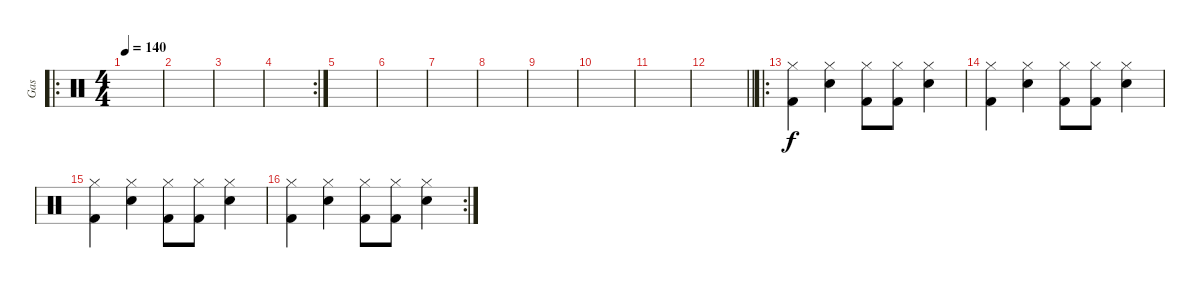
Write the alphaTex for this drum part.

\track ("Gas" "Gas") {instrument percussion}
\staff {score}
\articulation defaults
\ro
\ts (4 4)
\tempo 140
\clef neutral
\ks c
|
|
|
\rc 2
|
|
|
|
|
|
|
|
\barLineRight lightlight
|
\ro
("Hi-Hat (closed)" "Kick (hit) 2").4 ("Hi-Hat (closed)" "Electric Snare (hit)").4 ("Hi-Hat (closed)" "Kick (hit) 2").8 ("Hi-Hat (closed)" "Kick (hit) 2").8 ("Hi-Hat (closed)" "Electric Snare (hit)").4 |
("Hi-Hat (closed)" "Kick (hit) 2").4 ("Hi-Hat (closed)" "Electric Snare (hit)").4 ("Hi-Hat (closed)" "Kick (hit) 2").8 ("Hi-Hat (closed)" "Kick (hit) 2").8 ("Hi-Hat (closed)" "Electric Snare (hit)").4 |
("Hi-Hat (closed)" "Kick (hit) 2").4 ("Hi-Hat (closed)" "Electric Snare (hit)").4 ("Hi-Hat (closed)" "Kick (hit) 2").8 ("Hi-Hat (closed)" "Kick (hit) 2").8 ("Hi-Hat (closed)" "Electric Snare (hit)").4 |
\rc 2
("Hi-Hat (closed)" "Kick (hit) 2").4 ("Hi-Hat (closed)" "Electric Snare (hit)").4 ("Hi-Hat (closed)" "Kick (hit) 2").8 ("Hi-Hat (closed)" "Kick (hit) 2").8 ("Hi-Hat (closed)" "Electric Snare (hit)").4
